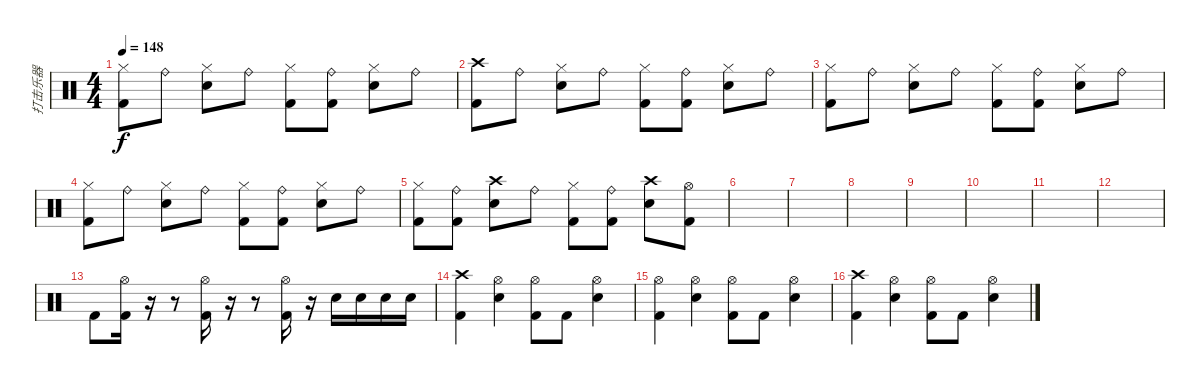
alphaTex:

\track ("打击乐器" "打击乐器") {instrument percussion}
\staff {score}
\articulation defaults
\ts (4 4)
\tempo 148
\clef neutral
\ks c
("Hi-Hat (closed)" "Kick (hit) 2").8{dy f} "Ride (bell)".8 ("Hi-Hat (closed)" "Electric Snare (hit)").8 "Ride (bell)".8 ("Hi-Hat (closed)" "Kick (hit) 2").8 ("Ride (bell)" "Kick (hit) 2").8 ("Hi-Hat (closed)" "Electric Snare (hit)").8 "Ride (bell)".8 |
("Crash high (hit)" "Kick (hit) 2").8 "Ride (bell)".8 ("Hi-Hat (closed)" "Electric Snare (hit)").8 "Ride (bell)".8 ("Hi-Hat (closed)" "Kick (hit) 2").8 ("Ride (bell)" "Kick (hit) 2").8 ("Hi-Hat (closed)" "Electric Snare (hit)").8 "Ride (bell)".8 |
("Hi-Hat (closed)" "Kick (hit) 2").8 "Ride (bell)".8 ("Hi-Hat (closed)" "Electric Snare (hit)").8 "Ride (bell)".8 ("Hi-Hat (closed)" "Kick (hit) 2").8 ("Ride (bell)" "Kick (hit) 2").8 ("Hi-Hat (closed)" "Electric Snare (hit)").8 "Ride (bell)".8 |
("Hi-Hat (closed)" "Kick (hit) 2").8 "Ride (bell)".8 ("Hi-Hat (closed)" "Electric Snare (hit)").8 "Ride (bell)".8 ("Hi-Hat (closed)" "Kick (hit) 2").8 ("Ride (bell)" "Kick (hit) 2").8 ("Hi-Hat (closed)" "Electric Snare (hit)").8 "Ride (bell)".8 |
("Hi-Hat (closed)" "Kick (hit) 2").8 ("Ride (bell)" "Kick (hit) 2").8 ("Crash high (hit)" "Electric Snare (hit)").8 "Ride (bell)".8 ("Hi-Hat (closed)" "Kick (hit) 2").8 ("Ride (bell)" "Kick (hit) 2").8 ("Crash high (hit)" "Electric Snare (hit)").8 ("Hi-Hat (open)" "Kick (hit) 2").8 |
|
|
|
|
|
|
|
"Kick (hit) 2".8 ("Hi-Hat (open)" "Kick (hit) 2").16 r.16 r.8 ("Hi-Hat (open)" "Kick (hit) 2").16 r.16 r.8 ("Hi-Hat (open)" "Kick (hit) 2").16 r.16 "Electric Snare (hit)".16 "Electric Snare (hit)".16 "Electric Snare (hit)".16 "Electric Snare (hit)".16 |
("Kick (hit) 2" "Crash high (hit)").4 ("Electric Snare (hit)" "Hi-Hat (open)").4 ("Kick (hit) 2" "Hi-Hat (open)").8 "Kick (hit) 2".8 ("Electric Snare (hit)" "Hi-Hat (open)").4 |
("Kick (hit) 2" "Hi-Hat (open)").4 ("Electric Snare (hit)" "Hi-Hat (open)").4 ("Kick (hit) 2" "Hi-Hat (open)").8 "Kick (hit) 2".8 ("Electric Snare (hit)" "Hi-Hat (open)").4 |
("Kick (hit) 2" "Crash high (hit)").4 ("Electric Snare (hit)" "Hi-Hat (open)").4 ("Kick (hit) 2" "Hi-Hat (open)").8 "Kick (hit) 2".8 ("Electric Snare (hit)" "Hi-Hat (open)").4
